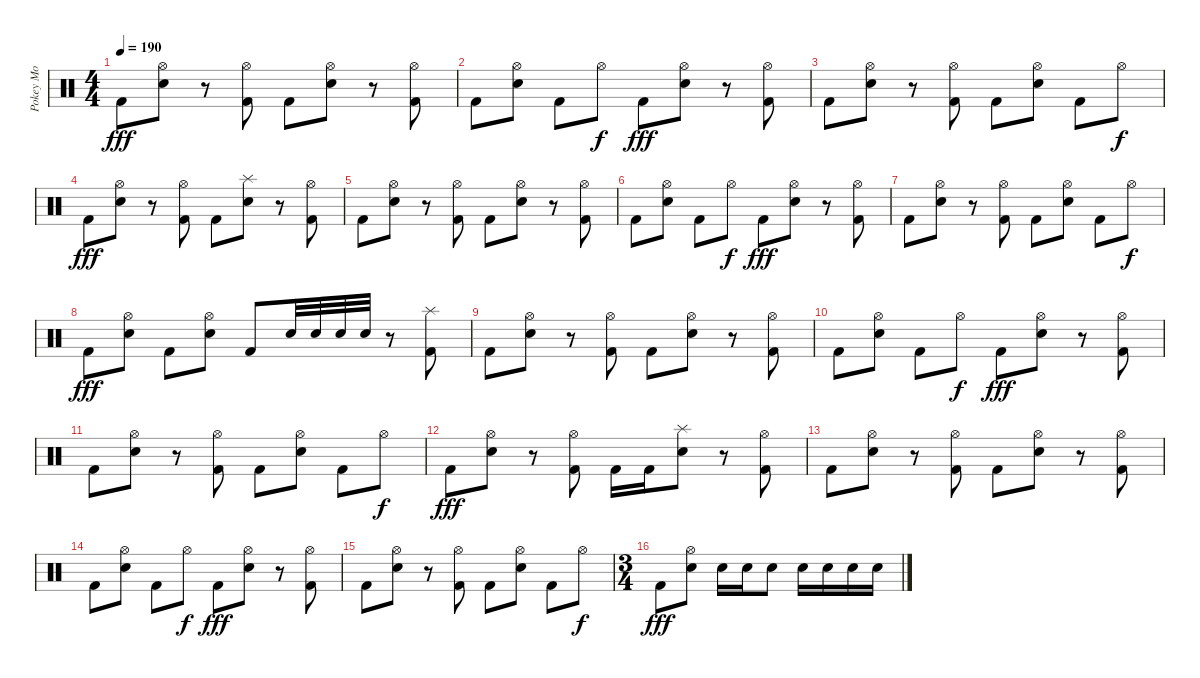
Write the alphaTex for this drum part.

\track ("Pokey Mo" "Pokey Mo") {instrument percussion}
\staff {score}
\articulation defaults
\ts (4 4)
\tempo 190
\clef neutral
\ks c "Kick (hit) 2".8{dy fff}
("Hi-Hat (open)" "Electric Snare (hit)").8 r.8 ("Hi-Hat (open)" "Kick (hit) 2").8 "Kick (hit) 2".8 ("Hi-Hat (open)" "Electric Snare (hit)").8 r.8 ("Hi-Hat (open)" "Kick (hit) 2").8 |
"Kick (hit) 2".8 ("Hi-Hat (open)" "Electric Snare (hit)").8 "Kick (hit) 2".8 "Hi-Hat (open)".8{dy f} "Kick (hit) 2".8{dy fff} ("Hi-Hat (open)" "Electric Snare (hit)").8 r.8 ("Hi-Hat (open)" "Kick (hit) 2").8 |
"Kick (hit) 2".8 ("Hi-Hat (open)" "Electric Snare (hit)").8 r.8 ("Hi-Hat (open)" "Kick (hit) 2").8 "Kick (hit) 2".8 ("Hi-Hat (open)" "Electric Snare (hit)").8 "Kick (hit) 2".8 "Hi-Hat (open)".8{dy f} |
"Kick (hit) 2".8{dy fff} ("Hi-Hat (open)" "Electric Snare (hit)").8 r.8 ("Hi-Hat (open)" "Kick (hit) 2").8 "Kick (hit) 2".8 ("Splash (hit)" "Electric Snare (hit)").8 r.8 ("Hi-Hat (open)" "Kick (hit) 2").8 |
"Kick (hit) 2".8 ("Hi-Hat (open)" "Electric Snare (hit)").8 r.8 ("Hi-Hat (open)" "Kick (hit) 2").8 "Kick (hit) 2".8 ("Hi-Hat (open)" "Electric Snare (hit)").8 r.8 ("Hi-Hat (open)" "Kick (hit) 2").8 |
"Kick (hit) 2".8 ("Hi-Hat (open)" "Electric Snare (hit)").8 "Kick (hit) 2".8 "Hi-Hat (open)".8{dy f} "Kick (hit) 2".8{dy fff} ("Hi-Hat (open)" "Electric Snare (hit)").8 r.8 ("Hi-Hat (open)" "Kick (hit) 2").8 |
"Kick (hit) 2".8 ("Hi-Hat (open)" "Electric Snare (hit)").8 r.8 ("Hi-Hat (open)" "Kick (hit) 2").8 "Kick (hit) 2".8 ("Hi-Hat (open)" "Electric Snare (hit)").8 "Kick (hit) 2".8 "Hi-Hat (open)".8{dy f} |
"Kick (hit) 2".8{dy fff} ("Hi-Hat (open)" "Electric Snare (hit)").8 "Kick (hit) 2".8 ("Hi-Hat (open)" "Electric Snare (hit)").8 "Kick (hit) 2".8 "Electric Snare (hit)".32 "Electric Snare (hit)".32 "Electric Snare (hit)".32 "Electric Snare (hit)".32 r.8 ("Splash (hit)" "Kick (hit) 2").8 |
"Kick (hit) 2".8 ("Hi-Hat (open)" "Electric Snare (hit)").8 r.8 ("Hi-Hat (open)" "Kick (hit) 2").8 "Kick (hit) 2".8 ("Hi-Hat (open)" "Electric Snare (hit)").8 r.8 ("Hi-Hat (open)" "Kick (hit) 2").8 |
"Kick (hit) 2".8 ("Hi-Hat (open)" "Electric Snare (hit)").8 "Kick (hit) 2".8 "Hi-Hat (open)".8{dy f} "Kick (hit) 2".8{dy fff} ("Hi-Hat (open)" "Electric Snare (hit)").8 r.8 ("Hi-Hat (open)" "Kick (hit) 2").8 |
"Kick (hit) 2".8 ("Hi-Hat (open)" "Electric Snare (hit)").8 r.8 ("Hi-Hat (open)" "Kick (hit) 2").8 "Kick (hit) 2".8 ("Hi-Hat (open)" "Electric Snare (hit)").8 "Kick (hit) 2".8 "Hi-Hat (open)".8{dy f} |
"Kick (hit) 2".8{dy fff} ("Hi-Hat (open)" "Electric Snare (hit)").8 r.8 ("Hi-Hat (open)" "Kick (hit) 2").8 "Kick (hit) 2".16 "Kick (hit) 2".16 ("Splash (hit)" "Electric Snare (hit)").8 r.8 ("Hi-Hat (open)" "Kick (hit) 2").8 |
"Kick (hit) 2".8 ("Hi-Hat (open)" "Electric Snare (hit)").8 r.8 ("Hi-Hat (open)" "Kick (hit) 2").8 "Kick (hit) 2".8 ("Hi-Hat (open)" "Electric Snare (hit)").8 r.8 ("Hi-Hat (open)" "Kick (hit) 2").8 |
"Kick (hit) 2".8 ("Hi-Hat (open)" "Electric Snare (hit)").8 "Kick (hit) 2".8 "Hi-Hat (open)".8{dy f} "Kick (hit) 2".8{dy fff} ("Hi-Hat (open)" "Electric Snare (hit)").8 r.8 ("Hi-Hat (open)" "Kick (hit) 2").8 |
"Kick (hit) 2".8 ("Hi-Hat (open)" "Electric Snare (hit)").8 r.8 ("Hi-Hat (open)" "Kick (hit) 2").8 "Kick (hit) 2".8 ("Hi-Hat (open)" "Electric Snare (hit)").8 "Kick (hit) 2".8 "Hi-Hat (open)".8{dy f} |
\ts (3 4)
"Kick (hit) 2".8{dy fff} ("Hi-Hat (open)" "Electric Snare (hit)").8 "Electric Snare (hit)".16 "Electric Snare (hit)".16 "Electric Snare (hit)".8 "Electric Snare (hit)".16 "Electric Snare (hit)".16 "Electric Snare (hit)".16 "Electric Snare (hit)".16
